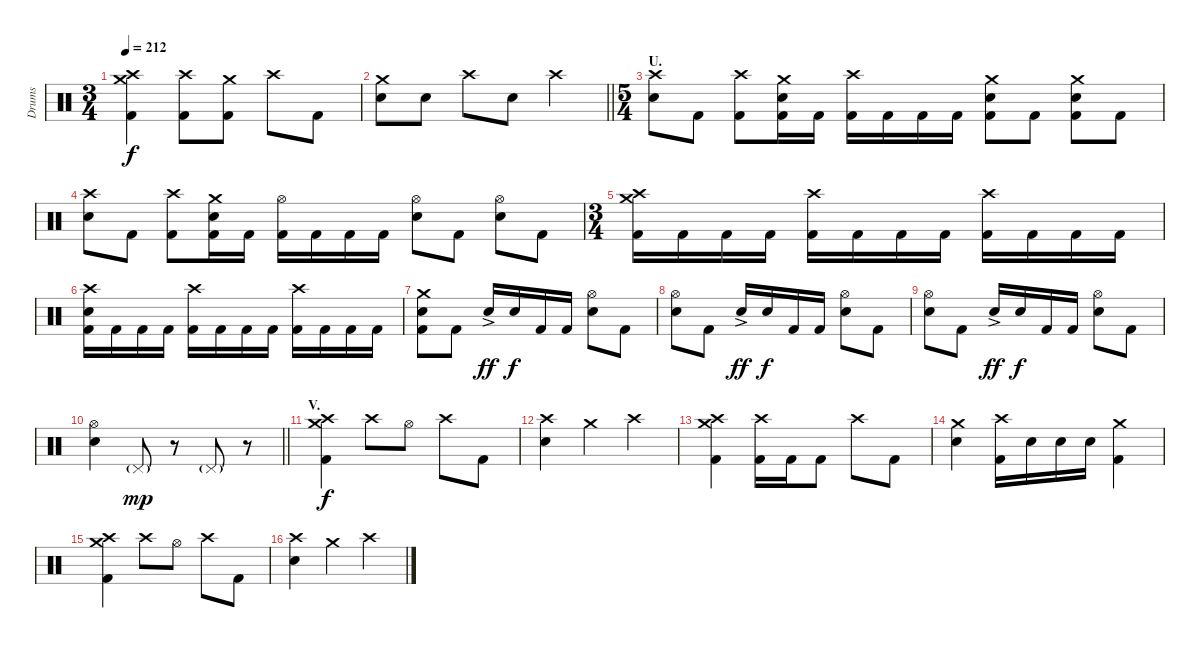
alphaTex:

\track ("Drums" "Drums") {instrument percussion}
\staff {score}
\articulation defaults
\ts (3 4)
\tempo 212
\clef neutral
\ks c
("Crash medium (hit)" "Crash high (hit)" "Kick (hit) 2").4{dy f} ("Crash high (hit)" "Kick (hit) 2").8 ("Crash medium (hit)" "Kick (hit) 2").8 "Crash high (hit)".8 "Kick (hit) 2".8 |
\barLineRight lightlight
("Crash medium (hit)" "Electric Snare (hit)").8 "Electric Snare (hit)".8 "Crash high (hit)".8 "Electric Snare (hit)".8 "Crash high (hit)".4 |
\ts (5 4)
\section ("" "U.")
("Crash high (hit)" "Electric Snare (hit)").8 "Kick (hit) 2".8 ("Crash high (hit)" "Kick (hit) 2").8 ("Crash medium (hit)" "Electric Snare (hit)" "Kick (hit) 2").16 "Kick (hit) 2".16 ("Crash high (hit)" "Kick (hit) 2").16 "Kick (hit) 2".16 "Kick (hit) 2".16 "Kick (hit) 2".16 ("Crash medium (hit)" "Electric Snare (hit)" "Kick (hit) 2").8 "Kick (hit) 2".8 ("Crash medium (hit)" "Electric Snare (hit)" "Kick (hit) 2").8 "Kick (hit) 2".8 |
("Crash high (hit)" "Electric Snare (hit)").8 "Kick (hit) 2".8 ("Crash high (hit)" "Kick (hit) 2").8 ("Crash medium (hit)" "Electric Snare (hit)" "Kick (hit) 2").16 "Kick (hit) 2".16 ("Hi-Hat (open)" "Kick (hit) 2").16 "Kick (hit) 2".16 "Kick (hit) 2".16 "Kick (hit) 2".16 ("Hi-Hat (open)" "Electric Snare (hit)").8 "Kick (hit) 2".8 ("Hi-Hat (open)" "Electric Snare (hit)").8 "Kick (hit) 2".8 |
\ts (3 4)
("Crash medium (hit)" "Crash high (hit)" "Kick (hit) 2").16 "Kick (hit) 2".16 "Kick (hit) 2".16 "Kick (hit) 2".16 ("Crash high (hit)" "Kick (hit) 2").16 "Kick (hit) 2".16 "Kick (hit) 2".16 "Kick (hit) 2".16 ("Crash high (hit)" "Kick (hit) 2").16 "Kick (hit) 2".16 "Kick (hit) 2".16 "Kick (hit) 2".16 |
("Crash high (hit)" "Electric Snare (hit)" "Kick (hit) 2").16 "Kick (hit) 2".16 "Kick (hit) 2".16 "Kick (hit) 2".16 ("Crash high (hit)" "Kick (hit) 2").16 "Kick (hit) 2".16 "Kick (hit) 2".16 "Kick (hit) 2".16 ("Crash high (hit)" "Kick (hit) 2").16 "Kick (hit) 2".16 "Kick (hit) 2".16 "Kick (hit) 2".16 |
("Crash medium (hit)" "Electric Snare (hit)" "Kick (hit) 2").8 "Kick (hit) 2".8 "Electric Snare (hit)"{ac}.16{dy ff} "Electric Snare (hit)".16{dy f} "Kick (hit) 2".16 "Kick (hit) 2".16 ("Hi-Hat (open)" "Electric Snare (hit)").8 "Kick (hit) 2".8 |
("Hi-Hat (open)" "Electric Snare (hit)").8 "Kick (hit) 2".8 "Electric Snare (hit)"{ac}.16{dy ff} "Electric Snare (hit)".16{dy f} "Kick (hit) 2".16 "Kick (hit) 2".16 ("Hi-Hat (open)" "Electric Snare (hit)").8 "Kick (hit) 2".8 |
("Hi-Hat (open)" "Electric Snare (hit)").8 "Kick (hit) 2".8 "Electric Snare (hit)"{ac}.16{dy ff} "Electric Snare (hit)".16{dy f} "Kick (hit) 2".16 "Kick (hit) 2".16 ("Hi-Hat (open)" "Electric Snare (hit)").8 "Kick (hit) 2".8 |
\barLineRight lightlight
("Hi-Hat (open)" "Electric Snare (hit)").4 "Pedal Hi-Hat (hit)"{g}.8{dy mp} r.8 "Pedal Hi-Hat (hit)"{g}.8 r.8 |
\section ("" "V.")
("Crash medium (hit)" "Crash high (hit)" "Kick (hit) 2").4{dy f} "Crash high (hit)".8 "Hi-Hat (open)".8 "Crash high (hit)".8 "Kick (hit) 2".8 |
("Crash high (hit)" "Electric Snare (hit)").4 "Crash medium (hit)".4 "Crash high (hit)".4 |
("Crash medium (hit)" "Crash high (hit)" "Kick (hit) 2").4 ("Crash high (hit)" "Kick (hit) 2").16 "Kick (hit) 2".16 "Kick (hit) 2".8 "Crash high (hit)".8 "Kick (hit) 2".8 |
("Crash medium (hit)" "Electric Snare (hit)").4 ("Crash high (hit)" "Kick (hit) 2").16 "Electric Snare (hit)".16 "Electric Snare (hit)".16 "Electric Snare (hit)".16 ("Crash medium (hit)" "Kick (hit) 2").4 |
("Crash medium (hit)" "Crash high (hit)" "Kick (hit) 2").4 "Crash high (hit)".8 "Hi-Hat (open)".8 "Crash high (hit)".8 "Kick (hit) 2".8 |
("Crash high (hit)" "Electric Snare (hit)").4 "Crash medium (hit)".4 "Crash high (hit)".4
